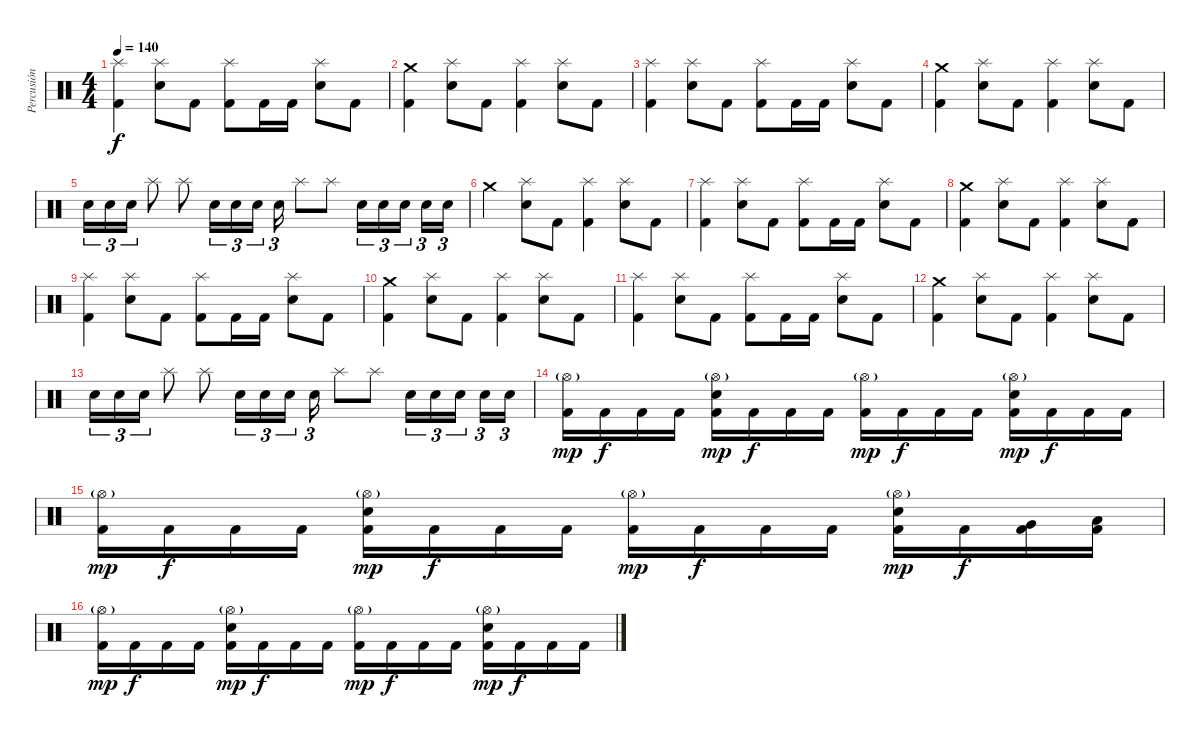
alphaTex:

\track ("Percusión" "Percusión") {instrument percussion}
\staff {score}
\articulation defaults
\ts (4 4)
\tempo 140
\clef neutral
\ks c
("Splash (hit)" "Kick (hit) 2").4{dy f} ("Splash (hit)" "Electric Snare (hit)").8 "Kick (hit) 2".8 ("Splash (hit)" "Kick (hit) 2").8 "Kick (hit) 2".16 "Kick (hit) 2".16 ("Splash (hit)" "Electric Snare (hit)").8 "Kick (hit) 2".8 |
("Crash medium (hit)" "Kick (hit) 2").4 ("Splash (hit)" "Electric Snare (hit)").8 "Kick (hit) 2".8 ("Splash (hit)" "Kick (hit) 2").4 ("Splash (hit)" "Electric Snare (hit)").8 "Kick (hit) 2".8 |
("Splash (hit)" "Kick (hit) 2").4 ("Splash (hit)" "Electric Snare (hit)").8 "Kick (hit) 2".8 ("Splash (hit)" "Kick (hit) 2").8 "Kick (hit) 2".16 "Kick (hit) 2".16 ("Splash (hit)" "Electric Snare (hit)").8 "Kick (hit) 2".8 |
("Crash medium (hit)" "Kick (hit) 2").4 ("Splash (hit)" "Electric Snare (hit)").8 "Kick (hit) 2".8 ("Splash (hit)" "Kick (hit) 2").4 ("Splash (hit)" "Electric Snare (hit)").8 "Kick (hit) 2".8 |
"Electric Snare (hit)".16{tu (3 2)} "Electric Snare (hit)".16{tu (3 2)} "Electric Snare (hit)".16{tu (3 2)} "Splash (hit)".8 "Splash (hit)".8 "Electric Snare (hit)".16{tu (3 2)} "Electric Snare (hit)".16{tu (3 2)} "Electric Snare (hit)".16{tu (3 2)} "Electric Snare (hit)".16{tu (3 2)} "Splash (hit)".8 "Splash (hit)".8 "Electric Snare (hit)".16{tu (3 2)} "Electric Snare (hit)".16{tu (3 2)} "Electric Snare (hit)".16{tu (3 2) beam splitsecondary} "Electric Snare (hit)".16{tu (3 2)} "Electric Snare (hit)".16{tu (3 2)} |
"Crash medium (hit)".4 ("Splash (hit)" "Electric Snare (hit)").8 "Kick (hit) 2".8 ("Splash (hit)" "Kick (hit) 2").4 ("Splash (hit)" "Electric Snare (hit)").8 "Kick (hit) 2".8 |
("Splash (hit)" "Kick (hit) 2").4 ("Splash (hit)" "Electric Snare (hit)").8 "Kick (hit) 2".8 ("Splash (hit)" "Kick (hit) 2").8 "Kick (hit) 2".16 "Kick (hit) 2".16 ("Splash (hit)" "Electric Snare (hit)").8 "Kick (hit) 2".8 |
("Crash medium (hit)" "Kick (hit) 2").4 ("Splash (hit)" "Electric Snare (hit)").8 "Kick (hit) 2".8 ("Splash (hit)" "Kick (hit) 2").4 ("Splash (hit)" "Electric Snare (hit)").8 "Kick (hit) 2".8 |
("Splash (hit)" "Kick (hit) 2").4 ("Splash (hit)" "Electric Snare (hit)").8 "Kick (hit) 2".8 ("Splash (hit)" "Kick (hit) 2").8 "Kick (hit) 2".16 "Kick (hit) 2".16 ("Splash (hit)" "Electric Snare (hit)").8 "Kick (hit) 2".8 |
("Crash medium (hit)" "Kick (hit) 2").4 ("Splash (hit)" "Electric Snare (hit)").8 "Kick (hit) 2".8 ("Splash (hit)" "Kick (hit) 2").4 ("Splash (hit)" "Electric Snare (hit)").8 "Kick (hit) 2".8 |
("Splash (hit)" "Kick (hit) 2").4 ("Splash (hit)" "Electric Snare (hit)").8 "Kick (hit) 2".8 ("Splash (hit)" "Kick (hit) 2").8 "Kick (hit) 2".16 "Kick (hit) 2".16 ("Splash (hit)" "Electric Snare (hit)").8 "Kick (hit) 2".8 |
("Crash medium (hit)" "Kick (hit) 2").4 ("Splash (hit)" "Electric Snare (hit)").8 "Kick (hit) 2".8 ("Splash (hit)" "Kick (hit) 2").4 ("Splash (hit)" "Electric Snare (hit)").8 "Kick (hit) 2".8 |
"Electric Snare (hit)".16{tu (3 2)} "Electric Snare (hit)".16{tu (3 2)} "Electric Snare (hit)".16{tu (3 2)} "Splash (hit)".8 "Splash (hit)".8 "Electric Snare (hit)".16{tu (3 2)} "Electric Snare (hit)".16{tu (3 2)} "Electric Snare (hit)".16{tu (3 2)} "Electric Snare (hit)".16{tu (3 2)} "Splash (hit)".8 "Splash (hit)".8 "Electric Snare (hit)".16{tu (3 2)} "Electric Snare (hit)".16{tu (3 2)} "Electric Snare (hit)".16{tu (3 2) beam splitsecondary} "Electric Snare (hit)".16{tu (3 2)} "Electric Snare (hit)".16{tu (3 2)} |
("Hi-Hat (open)"{g} "Kick (hit) 2").16{dy mp} "Kick (hit) 2".16{dy f} "Kick (hit) 2".16 "Kick (hit) 2".16 ("Hi-Hat (open)"{g} "Electric Snare (hit)" "Kick (hit) 2").16{dy mp} "Kick (hit) 2".16{dy f} "Kick (hit) 2".16 "Kick (hit) 2".16 ("Hi-Hat (open)"{g} "Kick (hit) 2").16{dy mp} "Kick (hit) 2".16{dy f} "Kick (hit) 2".16 "Kick (hit) 2".16 ("Hi-Hat (open)"{g} "Electric Snare (hit)" "Kick (hit) 2").16{dy mp} "Kick (hit) 2".16{dy f} "Kick (hit) 2".16 "Kick (hit) 2".16 |
("Hi-Hat (open)"{g} "Kick (hit) 2").16{dy mp} "Kick (hit) 2".16{dy f} "Kick (hit) 2".16 "Kick (hit) 2".16 ("Hi-Hat (open)"{g} "Electric Snare (hit)" "Kick (hit) 2").16{dy mp} "Kick (hit) 2".16{dy f} "Kick (hit) 2".16 "Kick (hit) 2".16 ("Hi-Hat (open)"{g} "Kick (hit) 2").16{dy mp} "Kick (hit) 2".16{dy f} "Kick (hit) 2".16 "Kick (hit) 2".16 ("Hi-Hat (open)"{g} "Electric Snare (hit)" "Kick (hit) 2").16{dy mp} "Kick (hit) 2".16{dy f} ("Very Low Tom (hit)" "Kick (hit) 2").16 ("Low Floor Tom (hit)" "Kick (hit) 2").16 |
("Hi-Hat (open)"{g} "Kick (hit) 2").16{dy mp} "Kick (hit) 2".16{dy f} "Kick (hit) 2".16 "Kick (hit) 2".16 ("Hi-Hat (open)"{g} "Electric Snare (hit)" "Kick (hit) 2").16{dy mp} "Kick (hit) 2".16{dy f} "Kick (hit) 2".16 "Kick (hit) 2".16 ("Hi-Hat (open)"{g} "Kick (hit) 2").16{dy mp} "Kick (hit) 2".16{dy f} "Kick (hit) 2".16 "Kick (hit) 2".16 ("Hi-Hat (open)"{g} "Electric Snare (hit)" "Kick (hit) 2").16{dy mp} "Kick (hit) 2".16{dy f} "Kick (hit) 2".16 "Kick (hit) 2".16
